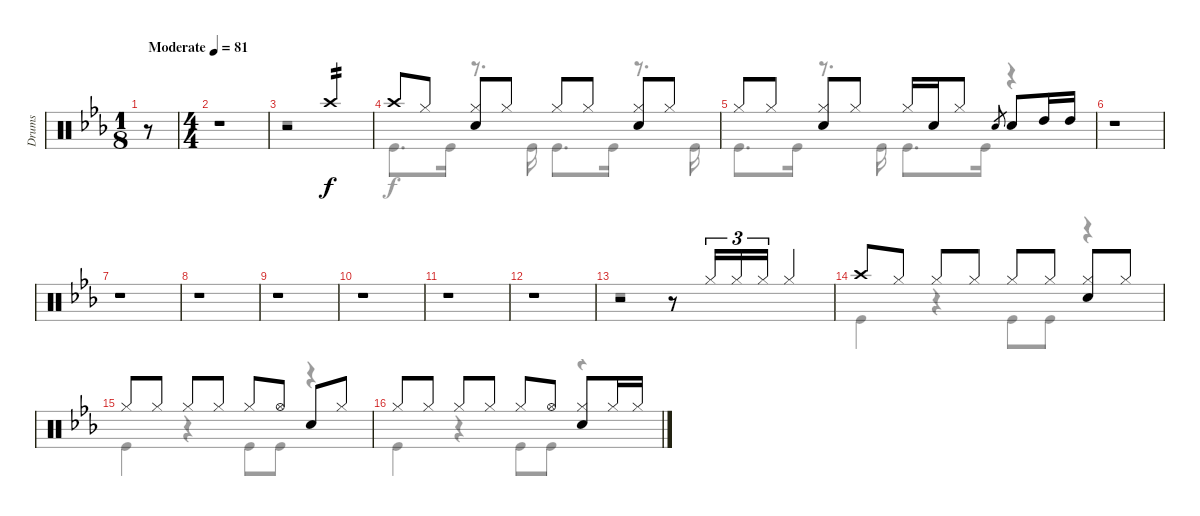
\track ("Drums" "Drums") {instrument percussion}
\staff {score}
\articulation defaults
\voice
\ts (1 8)
\tempo (81 "Moderate")
\clef neutral
\ks eb
r.8{dy f} |
\ts (4 4)
r.1 |
r.2 "Crash high (hit)".2{tp 2 beam Up} |
"Crash high (hit)".8{beam Up} "Hi-Hat (closed)".8{beam Up} ("Hi-Hat (closed)" "Snare (hit) 2").8{beam Up} "Hi-Hat (closed)".8{beam Up} "Hi-Hat (closed)".8{beam Up} "Hi-Hat (closed)".8{beam Up} ("Hi-Hat (closed)" "Snare (hit) 2").8{beam Up} "Hi-Hat (closed)".8{beam Up} |
"Hi-Hat (closed)".8{beam Up} "Hi-Hat (closed)".8{beam Up} ("Hi-Hat (closed)" "Snare (hit) 2").8{beam Up} "Hi-Hat (closed)".8{beam Up} "Hi-Hat (closed)".16{beam Up} "Snare (hit) 2".16{beam Up} "Hi-Hat (closed)".8{beam Up} "Snare (hit) 2".8{gr} "Snare (hit) 2".8{beam Up} "High Tom (hit)".16{beam Up} "High Tom (hit)".16{beam Up} |
r.1 |
r.1 |
r.1 |
r.1 |
r.1 |
r.1 |
r.1 |
r.2 r.8 "Hi-Hat (closed)".16{tu (3 2) beam Up} "Hi-Hat (closed)".16{tu (3 2) beam Up} "Hi-Hat (closed)".16{tu (3 2) beam Up} "Hi-Hat (closed)".4{beam Up} |
"Crash high (hit)".8{beam Up} "Hi-Hat (closed)".8{beam Up} "Hi-Hat (closed)".8{beam Up} "Hi-Hat (closed)".8{beam Up} "Hi-Hat (closed)".8{beam Up} "Hi-Hat (closed)".8{beam Up} ("Hi-Hat (closed)" "Snare (hit) 2").8{beam Up} "Hi-Hat (closed)".8{beam Up} |
"Hi-Hat (closed)".8{beam Up} "Hi-Hat (closed)".8{beam Up} "Hi-Hat (closed)".8{beam Up} "Hi-Hat (closed)".8{beam Up} "Hi-Hat (closed)".8{beam Up} "Hi-Hat (open)".8{beam Up} "Snare (hit) 2".8{beam Up} "Hi-Hat (closed)".8{beam Up} |
"Hi-Hat (closed)".8{beam Up} "Hi-Hat (closed)".8{beam Up} "Hi-Hat (closed)".8{beam Up} "Hi-Hat (closed)".8{beam Up} "Hi-Hat (closed)".8{beam Up} "Hi-Hat (open)".8{beam Up} ("Hi-Hat (closed)" "Snare (hit) 2").8{beam Up} "Hi-Hat (closed)".16{beam Up} "Hi-Hat (closed)".16{beam Up}
\voice
\clef neutral
\ottava regular
\simile none
\ks eb
r.8{dy f} |
r.1 |
r.1 |
"Kick (hit)".8{d} "Kick (hit)".16 r.8{d} "Kick (hit)".16 "Kick (hit)".8{d} "Kick (hit)".16 r.8{d} "Kick (hit)".16 |
"Kick (hit)".8{d} "Kick (hit)".16 r.8{d} "Kick (hit)".16 "Kick (hit)".8{d} "Kick (hit)".16 r.4 |
r.1 |
r.1 |
r.1 |
r.1 |
r.1 |
r.1 |
r.1 |
r.1 |
"Kick (hit)".4 r.4 "Kick (hit)".8 "Kick (hit)".8 r.4 |
"Kick (hit)".4 r.4 "Kick (hit)".8 "Kick (hit)".8 r.4 |
"Kick (hit)".4 r.4 "Kick (hit)".8 "Kick (hit)".8 r.4
